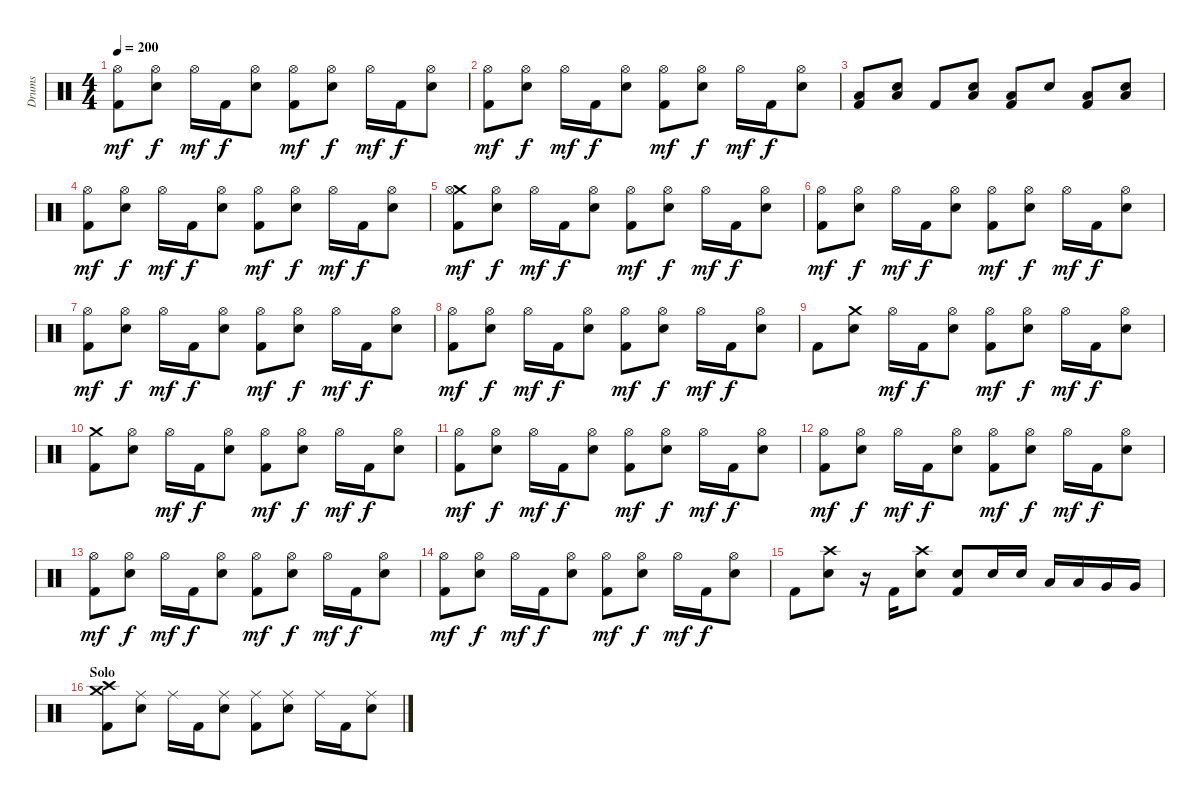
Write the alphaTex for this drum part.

\track ("Drums" "Drums") {instrument percussion}
\staff {score}
\articulation defaults
\ts (4 4)
\tempo 200
\clef neutral
\ks c
("Hi-Hat (open)" "Kick (hit) 2").8{dy mf} ("Hi-Hat (open)" "Electric Snare (hit)").8{dy f} "Hi-Hat (open)".16{dy mf} "Kick (hit) 2".16{dy f} ("Hi-Hat (open)" "Electric Snare (hit)").8 ("Hi-Hat (open)" "Kick (hit) 2").8{dy mf} ("Hi-Hat (open)" "Electric Snare (hit)").8{dy f} "Hi-Hat (open)".16{dy mf} "Kick (hit) 2".16{dy f} ("Hi-Hat (open)" "Electric Snare (hit)").8 |
("Hi-Hat (open)" "Kick (hit) 2").8{dy mf} ("Hi-Hat (open)" "Electric Snare (hit)").8{dy f} "Hi-Hat (open)".16{dy mf} "Kick (hit) 2".16{dy f} ("Hi-Hat (open)" "Electric Snare (hit)").8 ("Hi-Hat (open)" "Kick (hit) 2").8{dy mf} ("Hi-Hat (open)" "Electric Snare (hit)").8{dy f} "Hi-Hat (open)".16{dy mf} "Kick (hit) 2".16{dy f} ("Hi-Hat (open)" "Electric Snare (hit)").8 |
("Low Floor Tom (hit)" "Kick (hit) 2").8 ("Low Floor Tom (hit)" "Electric Snare (hit)").8 "Kick (hit) 2".8 ("Low Floor Tom (hit)" "Electric Snare (hit)").8 ("Low Floor Tom (hit)" "Kick (hit) 2").8 "Electric Snare (hit)".8 ("Low Floor Tom (hit)" "Kick (hit) 2").8 ("Low Floor Tom (hit)" "Electric Snare (hit)").8 |
("Hi-Hat (open)" "Kick (hit) 2").8{dy mf} ("Hi-Hat (open)" "Electric Snare (hit)").8{dy f} "Hi-Hat (open)".16{dy mf} "Kick (hit) 2".16{dy f} ("Hi-Hat (open)" "Electric Snare (hit)").8 ("Hi-Hat (open)" "Kick (hit) 2").8{dy mf} ("Hi-Hat (open)" "Electric Snare (hit)").8{dy f} "Hi-Hat (open)".16{dy mf} "Kick (hit) 2".16{dy f} ("Hi-Hat (open)" "Electric Snare (hit)").8 |
("Crash medium (hit)" "Hi-Hat (open)" "Kick (hit) 2").8{dy mf} ("Hi-Hat (open)" "Electric Snare (hit)").8{dy f} "Hi-Hat (open)".16{dy mf} "Kick (hit) 2".16{dy f} ("Hi-Hat (open)" "Electric Snare (hit)").8 ("Hi-Hat (open)" "Kick (hit) 2").8{dy mf} ("Hi-Hat (open)" "Electric Snare (hit)").8{dy f} "Hi-Hat (open)".16{dy mf} "Kick (hit) 2".16{dy f} ("Hi-Hat (open)" "Electric Snare (hit)").8 |
("Hi-Hat (open)" "Kick (hit) 2").8{dy mf} ("Hi-Hat (open)" "Electric Snare (hit)").8{dy f} "Hi-Hat (open)".16{dy mf} "Kick (hit) 2".16{dy f} ("Hi-Hat (open)" "Electric Snare (hit)").8 ("Hi-Hat (open)" "Kick (hit) 2").8{dy mf} ("Hi-Hat (open)" "Electric Snare (hit)").8{dy f} "Hi-Hat (open)".16{dy mf} "Kick (hit) 2".16{dy f} ("Hi-Hat (open)" "Electric Snare (hit)").8 |
("Hi-Hat (open)" "Kick (hit) 2").8{dy mf} ("Hi-Hat (open)" "Electric Snare (hit)").8{dy f} "Hi-Hat (open)".16{dy mf} "Kick (hit) 2".16{dy f} ("Hi-Hat (open)" "Electric Snare (hit)").8 ("Hi-Hat (open)" "Kick (hit) 2").8{dy mf} ("Hi-Hat (open)" "Electric Snare (hit)").8{dy f} "Hi-Hat (open)".16{dy mf} "Kick (hit) 2".16{dy f} ("Hi-Hat (open)" "Electric Snare (hit)").8 |
("Hi-Hat (open)" "Kick (hit) 2").8{dy mf} ("Hi-Hat (open)" "Electric Snare (hit)").8{dy f} "Hi-Hat (open)".16{dy mf} "Kick (hit) 2".16{dy f} ("Hi-Hat (open)" "Electric Snare (hit)").8 ("Hi-Hat (open)" "Kick (hit) 2").8{dy mf} ("Hi-Hat (open)" "Electric Snare (hit)").8{dy f} "Hi-Hat (open)".16{dy mf} "Kick (hit) 2".16{dy f} ("Hi-Hat (open)" "Electric Snare (hit)").8 |
"Kick (hit) 2".8 ("Crash medium (hit)" "Electric Snare (hit)").8 "Hi-Hat (open)".16{dy mf} "Kick (hit) 2".16{dy f} ("Hi-Hat (open)" "Electric Snare (hit)").8 ("Hi-Hat (open)" "Kick (hit) 2").8{dy mf} ("Hi-Hat (open)" "Electric Snare (hit)").8{dy f} "Hi-Hat (open)".16{dy mf} "Kick (hit) 2".16{dy f} ("Hi-Hat (open)" "Electric Snare (hit)").8 |
("Crash medium (hit)" "Kick (hit) 2").8 ("Hi-Hat (open)" "Electric Snare (hit)").8 "Hi-Hat (open)".16{dy mf} "Kick (hit) 2".16{dy f} ("Hi-Hat (open)" "Electric Snare (hit)").8 ("Hi-Hat (open)" "Kick (hit) 2").8{dy mf} ("Hi-Hat (open)" "Electric Snare (hit)").8{dy f} "Hi-Hat (open)".16{dy mf} "Kick (hit) 2".16{dy f} ("Hi-Hat (open)" "Electric Snare (hit)").8 |
("Hi-Hat (open)" "Kick (hit) 2").8{dy mf} ("Hi-Hat (open)" "Electric Snare (hit)").8{dy f} "Hi-Hat (open)".16{dy mf} "Kick (hit) 2".16{dy f} ("Hi-Hat (open)" "Electric Snare (hit)").8 ("Hi-Hat (open)" "Kick (hit) 2").8{dy mf} ("Hi-Hat (open)" "Electric Snare (hit)").8{dy f} "Hi-Hat (open)".16{dy mf} "Kick (hit) 2".16{dy f} ("Hi-Hat (open)" "Electric Snare (hit)").8 |
("Hi-Hat (open)" "Kick (hit) 2").8{dy mf} ("Hi-Hat (open)" "Electric Snare (hit)").8{dy f} "Hi-Hat (open)".16{dy mf} "Kick (hit) 2".16{dy f} ("Hi-Hat (open)" "Electric Snare (hit)").8 ("Hi-Hat (open)" "Kick (hit) 2").8{dy mf} ("Hi-Hat (open)" "Electric Snare (hit)").8{dy f} "Hi-Hat (open)".16{dy mf} "Kick (hit) 2".16{dy f} ("Hi-Hat (open)" "Electric Snare (hit)").8 |
("Hi-Hat (open)" "Kick (hit) 2").8{dy mf} ("Hi-Hat (open)" "Electric Snare (hit)").8{dy f} "Hi-Hat (open)".16{dy mf} "Kick (hit) 2".16{dy f} ("Hi-Hat (open)" "Electric Snare (hit)").8 ("Hi-Hat (open)" "Kick (hit) 2").8{dy mf} ("Hi-Hat (open)" "Electric Snare (hit)").8{dy f} "Hi-Hat (open)".16{dy mf} "Kick (hit) 2".16{dy f} ("Hi-Hat (open)" "Electric Snare (hit)").8 |
("Hi-Hat (open)" "Kick (hit) 2").8{dy mf} ("Hi-Hat (open)" "Electric Snare (hit)").8{dy f} "Hi-Hat (open)".16{dy mf} "Kick (hit) 2".16{dy f} ("Hi-Hat (open)" "Electric Snare (hit)").8 ("Hi-Hat (open)" "Kick (hit) 2").8{dy mf} ("Hi-Hat (open)" "Electric Snare (hit)").8{dy f} "Hi-Hat (open)".16{dy mf} "Kick (hit) 2".16{dy f} ("Hi-Hat (open)" "Electric Snare (hit)").8 |
"Kick (hit) 2".8 ("Crash high (hit)" "Electric Snare (hit)").8 r.16 "Kick (hit) 2".16 ("Crash high (hit)" "Electric Snare (hit)").8 ("Electric Snare (hit)" "Kick (hit) 2").8 "Electric Snare (hit)".16 "Electric Snare (hit)".16 "Low Tom (hit)".16 "Low Tom (hit)".16 "Very Low Tom (hit)".16 "Very Low Tom (hit)".16 |
\section ("" "Solo")
("Crash medium (hit)" "Crash high (hit)" "Kick (hit) 2").8 ("Ride (middle)" "Electric Snare (hit)").8 "Ride (middle)".16 "Kick (hit) 2".16 ("Ride (middle)" "Electric Snare (hit)").8 ("Ride (middle)" "Kick (hit) 2").8 ("Ride (middle)" "Electric Snare (hit)").8 "Ride (middle)".16 "Kick (hit) 2".16 ("Ride (middle)" "Electric Snare (hit)").8
